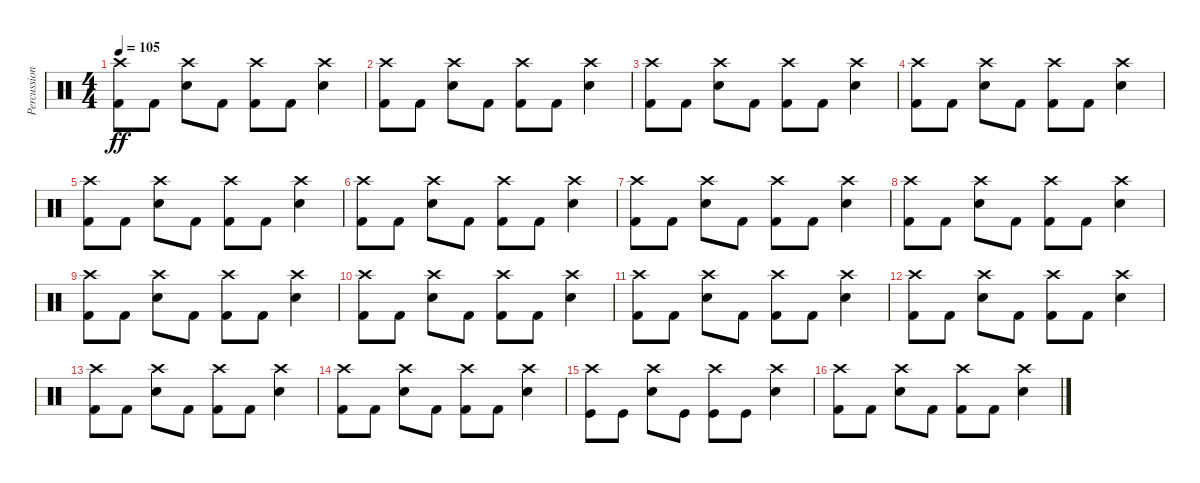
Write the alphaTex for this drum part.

\track ("Percussion" "Percussion") {instrument percussion}
\staff {score}
\articulation defaults
\ts (4 4)
\tempo 105
\clef neutral
\ks c
("Crash high (hit)" "Kick (hit) 2").8{dy ff} "Kick (hit) 2".8 ("Crash high (hit)" "Electric Snare (hit)").8 "Kick (hit) 2".8 ("Crash high (hit)" "Kick (hit) 2").8 "Kick (hit) 2".8 ("Crash high (hit)" "Electric Snare (hit)").4 |
("Crash high (hit)" "Kick (hit) 2").8 "Kick (hit) 2".8 ("Crash high (hit)" "Electric Snare (hit)").8 "Kick (hit) 2".8 ("Crash high (hit)" "Kick (hit) 2").8 "Kick (hit) 2".8 ("Crash high (hit)" "Electric Snare (hit)").4 |
("Crash high (hit)" "Kick (hit) 2").8 "Kick (hit) 2".8 ("Crash high (hit)" "Electric Snare (hit)").8 "Kick (hit) 2".8 ("Crash high (hit)" "Kick (hit) 2").8 "Kick (hit) 2".8 ("Crash high (hit)" "Electric Snare (hit)").4 |
("Crash high (hit)" "Kick (hit) 2").8 "Kick (hit) 2".8 ("Crash high (hit)" "Electric Snare (hit)").8 "Kick (hit) 2".8 ("Crash high (hit)" "Kick (hit) 2").8 "Kick (hit) 2".8 ("Crash high (hit)" "Electric Snare (hit)").4 |
("Crash high (hit)" "Kick (hit) 2").8 "Kick (hit) 2".8 ("Crash high (hit)" "Electric Snare (hit)").8 "Kick (hit) 2".8 ("Crash high (hit)" "Kick (hit) 2").8 "Kick (hit) 2".8 ("Crash high (hit)" "Electric Snare (hit)").4 |
("Crash high (hit)" "Kick (hit) 2").8 "Kick (hit) 2".8 ("Crash high (hit)" "Electric Snare (hit)").8 "Kick (hit) 2".8 ("Crash high (hit)" "Kick (hit) 2").8 "Kick (hit) 2".8 ("Crash high (hit)" "Electric Snare (hit)").4 |
("Crash high (hit)" "Kick (hit) 2").8 "Kick (hit) 2".8 ("Crash high (hit)" "Electric Snare (hit)").8 "Kick (hit) 2".8 ("Crash high (hit)" "Kick (hit) 2").8 "Kick (hit) 2".8 ("Crash high (hit)" "Electric Snare (hit)").4 |
("Crash high (hit)" "Kick (hit) 2").8 "Kick (hit) 2".8 ("Crash high (hit)" "Electric Snare (hit)").8 "Kick (hit) 2".8 ("Crash high (hit)" "Kick (hit) 2").8 "Kick (hit) 2".8 ("Crash high (hit)" "Electric Snare (hit)").4 |
("Crash high (hit)" "Kick (hit) 2").8 "Kick (hit) 2".8 ("Crash high (hit)" "Electric Snare (hit)").8 "Kick (hit) 2".8 ("Crash high (hit)" "Kick (hit) 2").8 "Kick (hit) 2".8 ("Crash high (hit)" "Electric Snare (hit)").4 |
("Crash high (hit)" "Kick (hit) 2").8 "Kick (hit) 2".8 ("Crash high (hit)" "Electric Snare (hit)").8 "Kick (hit) 2".8 ("Crash high (hit)" "Kick (hit) 2").8 "Kick (hit) 2".8 ("Crash high (hit)" "Electric Snare (hit)").4 |
("Crash high (hit)" "Kick (hit) 2").8 "Kick (hit) 2".8 ("Crash high (hit)" "Electric Snare (hit)").8 "Kick (hit) 2".8 ("Crash high (hit)" "Kick (hit) 2").8 "Kick (hit) 2".8 ("Crash high (hit)" "Electric Snare (hit)").4 |
("Crash high (hit)" "Kick (hit) 2").8 "Kick (hit) 2".8 ("Crash high (hit)" "Electric Snare (hit)").8 "Kick (hit) 2".8 ("Crash high (hit)" "Kick (hit) 2").8 "Kick (hit) 2".8 ("Crash high (hit)" "Electric Snare (hit)").4 |
("Crash high (hit)" "Kick (hit) 2").8 "Kick (hit) 2".8 ("Crash high (hit)" "Electric Snare (hit)").8 "Kick (hit) 2".8 ("Crash high (hit)" "Kick (hit) 2").8 "Kick (hit) 2".8 ("Crash high (hit)" "Electric Snare (hit)").4 |
("Crash high (hit)" "Kick (hit) 2").8 "Kick (hit) 2".8 ("Crash high (hit)" "Electric Snare (hit)").8 "Kick (hit) 2".8 ("Crash high (hit)" "Kick (hit) 2").8 "Kick (hit) 2".8 ("Crash high (hit)" "Electric Snare (hit)").4 |
("Crash high (hit)" "Kick (hit)").8 "Kick (hit)".8 ("Crash high (hit)" "Electric Snare (hit)").8 "Kick (hit)".8 ("Crash high (hit)" "Kick (hit)").8 "Kick (hit)".8 ("Crash high (hit)" "Electric Snare (hit)").4 |
("Crash high (hit)" "Kick (hit) 2").8 "Kick (hit) 2".8 ("Crash high (hit)" "Electric Snare (hit)").8 "Kick (hit) 2".8 ("Crash high (hit)" "Kick (hit) 2").8 "Kick (hit) 2".8 ("Crash high (hit)" "Electric Snare (hit)").4
